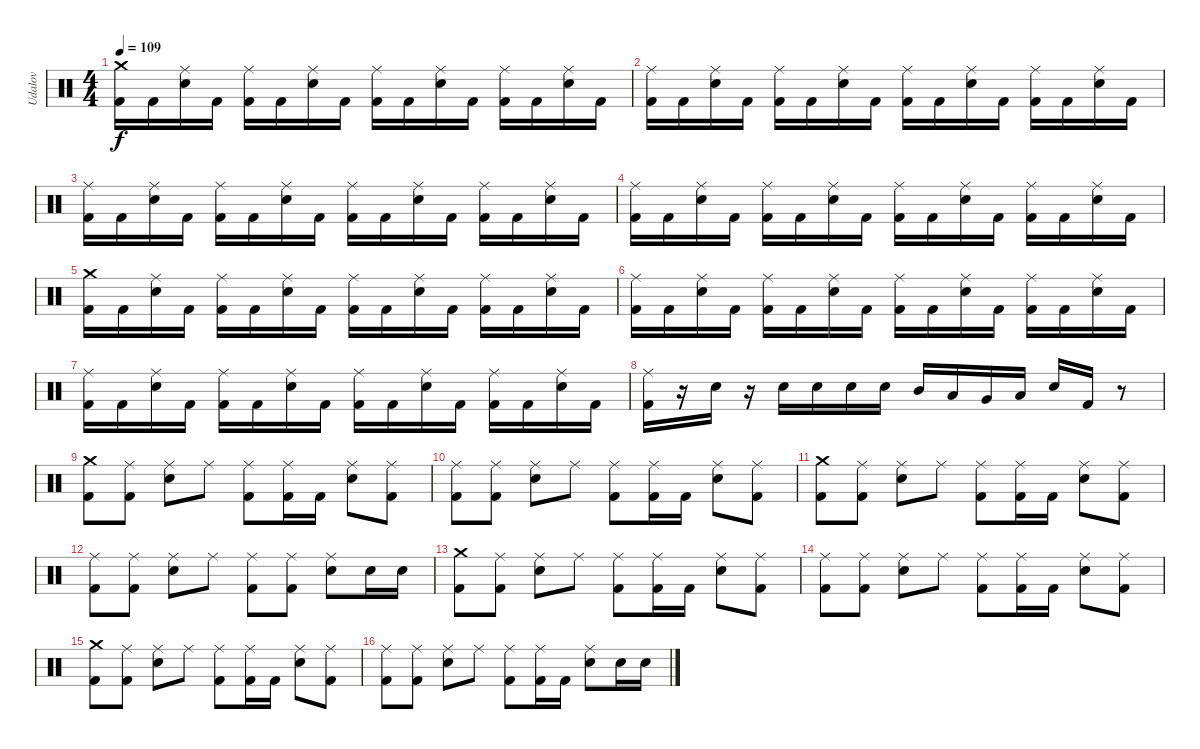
\track ("Udalov" "Udalov") {instrument percussion}
\staff {score}
\articulation defaults
\ts (4 4)
\tempo 109
\clef neutral
\ks c
("Kick (hit) 2" "Crash medium (hit)").16{dy f} "Kick (hit) 2".16 ("Ride (middle)" "Snare (hit) 2").16 "Kick (hit) 2".16 ("Ride (middle)" "Kick (hit) 2").16 "Kick (hit) 2".16 ("Ride (middle)" "Snare (hit) 2").16 "Kick (hit) 2".16 ("Ride (middle)" "Kick (hit) 2").16 "Kick (hit) 2".16 ("Ride (middle)" "Snare (hit) 2").16 "Kick (hit) 2".16 ("Ride (middle)" "Kick (hit) 2").16 "Kick (hit) 2".16 ("Ride (middle)" "Snare (hit) 2").16 "Kick (hit) 2".16 |
("Ride (middle)" "Kick (hit) 2").16 "Kick (hit) 2".16 ("Ride (middle)" "Snare (hit) 2").16 "Kick (hit) 2".16 ("Ride (middle)" "Kick (hit) 2").16 "Kick (hit) 2".16 ("Ride (middle)" "Snare (hit) 2").16 "Kick (hit) 2".16 ("Ride (middle)" "Kick (hit) 2").16 "Kick (hit) 2".16 ("Ride (middle)" "Snare (hit) 2").16 "Kick (hit) 2".16 ("Ride (middle)" "Kick (hit) 2").16 "Kick (hit) 2".16 ("Ride (middle)" "Snare (hit) 2").16 "Kick (hit) 2".16 |
("Ride (middle)" "Kick (hit) 2").16 "Kick (hit) 2".16 ("Ride (middle)" "Snare (hit) 2").16 "Kick (hit) 2".16 ("Ride (middle)" "Kick (hit) 2").16 "Kick (hit) 2".16 ("Ride (middle)" "Snare (hit) 2").16 "Kick (hit) 2".16 ("Ride (middle)" "Kick (hit) 2").16 "Kick (hit) 2".16 ("Ride (middle)" "Snare (hit) 2").16 "Kick (hit) 2".16 ("Ride (middle)" "Kick (hit) 2").16 "Kick (hit) 2".16 ("Ride (middle)" "Snare (hit) 2").16 "Kick (hit) 2".16 |
("Ride (middle)" "Kick (hit) 2").16 "Kick (hit) 2".16 ("Ride (middle)" "Snare (hit) 2").16 "Kick (hit) 2".16 ("Ride (middle)" "Kick (hit) 2").16 "Kick (hit) 2".16 ("Ride (middle)" "Snare (hit) 2").16 "Kick (hit) 2".16 ("Ride (middle)" "Kick (hit) 2").16 "Kick (hit) 2".16 ("Ride (middle)" "Snare (hit) 2").16 "Kick (hit) 2".16 ("Ride (middle)" "Kick (hit) 2").16 "Kick (hit) 2".16 ("Ride (middle)" "Snare (hit) 2").16 "Kick (hit) 2".16 |
("Kick (hit) 2" "Crash medium (hit)").16 "Kick (hit) 2".16 ("Ride (middle)" "Snare (hit) 2").16 "Kick (hit) 2".16 ("Ride (middle)" "Kick (hit) 2").16 "Kick (hit) 2".16 ("Ride (middle)" "Snare (hit) 2").16 "Kick (hit) 2".16 ("Ride (middle)" "Kick (hit) 2").16 "Kick (hit) 2".16 ("Ride (middle)" "Snare (hit) 2").16 "Kick (hit) 2".16 ("Ride (middle)" "Kick (hit) 2").16 "Kick (hit) 2".16 ("Ride (middle)" "Snare (hit) 2").16 "Kick (hit) 2".16 |
("Ride (middle)" "Kick (hit) 2").16 "Kick (hit) 2".16 ("Ride (middle)" "Snare (hit) 2").16 "Kick (hit) 2".16 ("Ride (middle)" "Kick (hit) 2").16 "Kick (hit) 2".16 ("Ride (middle)" "Snare (hit) 2").16 "Kick (hit) 2".16 ("Ride (middle)" "Kick (hit) 2").16 "Kick (hit) 2".16 ("Ride (middle)" "Snare (hit) 2").16 "Kick (hit) 2".16 ("Ride (middle)" "Kick (hit) 2").16 "Kick (hit) 2".16 ("Ride (middle)" "Snare (hit) 2").16 "Kick (hit) 2".16 |
("Ride (middle)" "Kick (hit) 2").16 "Kick (hit) 2".16 ("Ride (middle)" "Snare (hit) 2").16 "Kick (hit) 2".16 ("Ride (middle)" "Kick (hit) 2").16 "Kick (hit) 2".16 ("Ride (middle)" "Snare (hit) 2").16 "Kick (hit) 2".16 ("Ride (middle)" "Kick (hit) 2").16 "Kick (hit) 2".16 ("Ride (middle)" "Snare (hit) 2").16 "Kick (hit) 2".16 ("Ride (middle)" "Kick (hit) 2").16 "Kick (hit) 2".16 ("Ride (middle)" "Snare (hit) 2").16 "Kick (hit) 2".16 |
("Ride (middle)" "Kick (hit) 2").16 r.16 "Snare (hit) 2".16 r.16 "Snare (hit) 2".16 "Snare (hit) 2".16 "Snare (hit) 2".16 "Snare (hit) 2".16 "Mid Tom (hit)".16 "Low Tom (hit)".16 "Very Low Tom (hit)".16 "Low Floor Tom (hit)".16 "Snare (hit) 2".16 "Kick (hit) 2".16 r.8 |
("Kick (hit) 2" "Crash medium (hit)").8 ("Ride (middle)" "Kick (hit) 2").8 ("Ride (middle)" "Snare (hit) 2").8 "Ride (middle)".8 ("Ride (middle)" "Kick (hit) 2").8 ("Ride (middle)" "Kick (hit) 2").16 "Kick (hit) 2".16 ("Ride (middle)" "Snare (hit) 2").8 ("Ride (middle)" "Kick (hit) 2").8 |
("Kick (hit) 2" "Ride (middle)").8 ("Kick (hit) 2" "Ride (middle)").8 ("Snare (hit) 2" "Ride (middle)").8 "Ride (middle)".8 ("Kick (hit) 2" "Ride (middle)").8 ("Kick (hit) 2" "Ride (middle)").16 "Kick (hit) 2".16 ("Snare (hit) 2" "Ride (middle)").8 ("Kick (hit) 2" "Ride (middle)").8 |
("Kick (hit) 2" "Crash medium (hit)").8 ("Ride (middle)" "Kick (hit) 2").8 ("Ride (middle)" "Snare (hit) 2").8 "Ride (middle)".8 ("Ride (middle)" "Kick (hit) 2").8 ("Ride (middle)" "Kick (hit) 2").16 "Kick (hit) 2".16 ("Ride (middle)" "Snare (hit) 2").8 ("Ride (middle)" "Kick (hit) 2").8 |
("Kick (hit) 2" "Ride (middle)").8 ("Kick (hit) 2" "Ride (middle)").8 ("Snare (hit) 2" "Ride (middle)").8 "Ride (middle)".8 ("Kick (hit) 2" "Ride (middle)").8 ("Kick (hit) 2" "Ride (middle)").8 ("Snare (hit) 2" "Ride (middle)").8 "Snare (hit) 2".16 "Snare (hit) 2".16 |
("Kick (hit) 2" "Crash medium (hit)").8 ("Ride (middle)" "Kick (hit) 2").8 ("Ride (middle)" "Snare (hit) 2").8 "Ride (middle)".8 ("Ride (middle)" "Kick (hit) 2").8 ("Ride (middle)" "Kick (hit) 2").16 "Kick (hit) 2".16 ("Ride (middle)" "Snare (hit) 2").8 ("Ride (middle)" "Kick (hit) 2").8 |
("Kick (hit) 2" "Ride (middle)").8 ("Kick (hit) 2" "Ride (middle)").8 ("Snare (hit) 2" "Ride (middle)").8 "Ride (middle)".8 ("Kick (hit) 2" "Ride (middle)").8 ("Kick (hit) 2" "Ride (middle)").16 "Kick (hit) 2".16 ("Snare (hit) 2" "Ride (middle)").8 ("Kick (hit) 2" "Ride (middle)").8 |
("Kick (hit) 2" "Crash medium (hit)").8 ("Ride (middle)" "Kick (hit) 2").8 ("Ride (middle)" "Snare (hit) 2").8 "Ride (middle)".8 ("Ride (middle)" "Kick (hit) 2").8 ("Ride (middle)" "Kick (hit) 2").16 "Kick (hit) 2".16 ("Ride (middle)" "Snare (hit) 2").8 ("Ride (middle)" "Kick (hit) 2").8 |
("Kick (hit) 2" "Ride (middle)").8 ("Kick (hit) 2" "Ride (middle)").8 ("Snare (hit) 2" "Ride (middle)").8 "Ride (middle)".8 ("Kick (hit) 2" "Ride (middle)").8 ("Kick (hit) 2" "Ride (middle)").16 "Kick (hit) 2".16 ("Snare (hit) 2" "Ride (middle)").8 "Snare (hit) 2".16 "Snare (hit) 2".16
